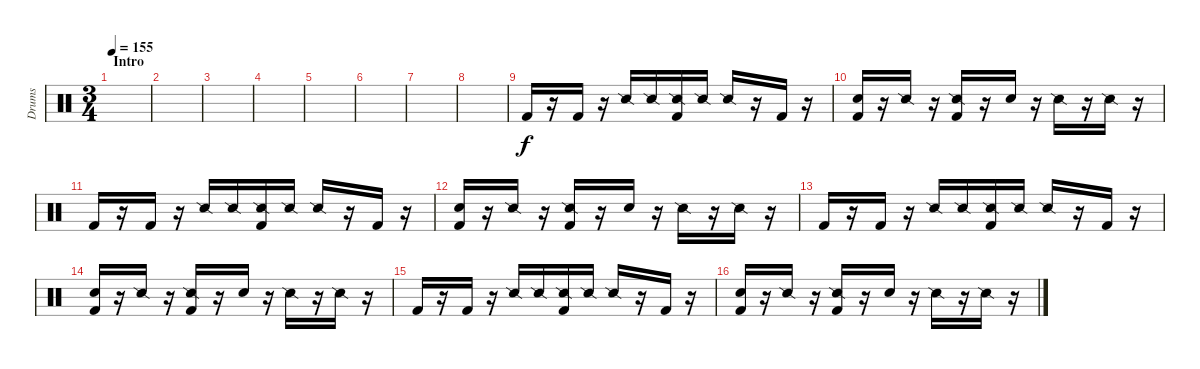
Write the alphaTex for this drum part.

\track ("Drums" "Drums") {instrument percussion}
\staff {score}
\articulation defaults
\ts (3 4)
\section ("" "Intro")
\tempo 155
\clef neutral
\ks c
|
|
|
|
|
|
|
|
"Kick (hit) 2".16 r.16 "Kick (hit) 2".16 r.16 "Snare (side stick) 2".16 "Snare (side stick) 2".16 ("Snare (side stick) 2" "Kick (hit) 2").16 "Snare (side stick) 2".16 "Snare (side stick) 2".16 r.16 "Kick (hit) 2".16 r.16 |
("Snare (hit) 2" "Kick (hit) 2").16 r.16 "Snare (side stick) 2".16 r.16 ("Snare (side stick) 2" "Kick (hit) 2").16 r.16 "Snare (hit) 2".16 r.16 "Snare (side stick) 2".16 r.16 "Snare (side stick) 2".16 r.16 |
"Kick (hit) 2".16 r.16 "Kick (hit) 2".16 r.16 "Snare (side stick) 2".16 "Snare (side stick) 2".16 ("Snare (side stick) 2" "Kick (hit) 2").16 "Snare (side stick) 2".16 "Snare (side stick) 2".16 r.16 "Kick (hit) 2".16 r.16 |
("Snare (hit) 2" "Kick (hit) 2").16 r.16 "Snare (side stick) 2".16 r.16 ("Snare (side stick) 2" "Kick (hit) 2").16 r.16 "Snare (hit) 2".16 r.16 "Snare (side stick) 2".16 r.16 "Snare (side stick) 2".16 r.16 |
"Kick (hit) 2".16 r.16 "Kick (hit) 2".16 r.16 "Snare (side stick) 2".16 "Snare (side stick) 2".16 ("Snare (side stick) 2" "Kick (hit) 2").16 "Snare (side stick) 2".16 "Snare (side stick) 2".16 r.16 "Kick (hit) 2".16 r.16 |
("Snare (hit) 2" "Kick (hit) 2").16 r.16 "Snare (side stick) 2".16 r.16 ("Snare (side stick) 2" "Kick (hit) 2").16 r.16 "Snare (hit) 2".16 r.16 "Snare (side stick) 2".16 r.16 "Snare (side stick) 2".16 r.16 |
"Kick (hit) 2".16 r.16 "Kick (hit) 2".16 r.16 "Snare (side stick) 2".16 "Snare (side stick) 2".16 ("Snare (side stick) 2" "Kick (hit) 2").16 "Snare (side stick) 2".16 "Snare (side stick) 2".16 r.16 "Kick (hit) 2".16 r.16 |
("Snare (hit) 2" "Kick (hit) 2").16 r.16 "Snare (side stick) 2".16 r.16 ("Snare (side stick) 2" "Kick (hit) 2").16 r.16 "Snare (hit) 2".16 r.16 "Snare (side stick) 2".16 r.16 "Snare (side stick) 2".16 r.16
